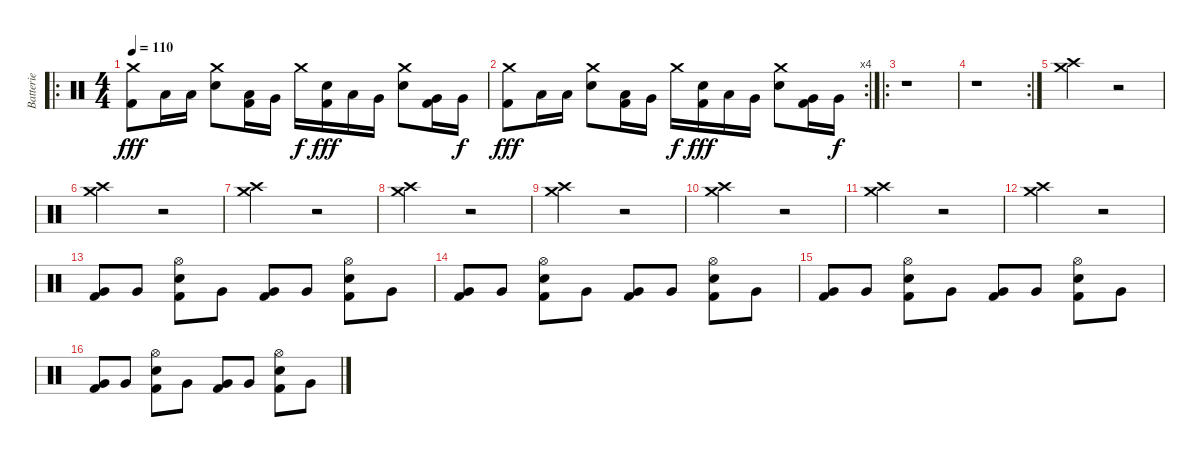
\track ("Batterie" "Batterie") {instrument percussion}
\staff {score}
\articulation defaults
\ro
\ts (4 4)
\tempo 110
\clef neutral
\ks c
("Crash medium (hit)" "Kick (hit) 2").8{dy fff} "Low Tom (hit)".16 "Low Tom (hit)".16 ("Crash medium (hit)" "Snare (hit) 2").8 ("Low Tom (hit)" "Kick (hit) 2").16 "Very Low Tom (hit)".16 "Crash medium (hit)".16{dy f} ("Snare (hit) 2" "Kick (hit) 2").16{dy fff} "Low Tom (hit)".16 "Very Low Tom (hit)".16 ("Crash medium (hit)" "Snare (hit) 2").8 ("Very Low Tom (hit)" "Kick (hit) 2").16 "Very Low Tom (hit)".16{dy f} |
\rc 4
("Crash medium (hit)" "Kick (hit) 2").8{dy fff} "Low Tom (hit)".16 "Low Tom (hit)".16 ("Crash medium (hit)" "Snare (hit) 2").8 ("Low Tom (hit)" "Kick (hit) 2").16 "Very Low Tom (hit)".16 "Crash medium (hit)".16{dy f} ("Snare (hit) 2" "Kick (hit) 2").16{dy fff} "Low Tom (hit)".16 "Very Low Tom (hit)".16 ("Crash medium (hit)" "Snare (hit) 2").8 ("Very Low Tom (hit)" "Kick (hit) 2").16 "Very Low Tom (hit)".16{dy f} |
\ro
r.1 |
\rc 2
r.1 |
("Crash high (hit)" "Crash medium (hit)").2 r.2 |
("Crash high (hit)" "Crash medium (hit)").2 r.2 |
("Crash high (hit)" "Crash medium (hit)").2 r.2 |
("Crash high (hit)" "Crash medium (hit)").2 r.2 |
("Crash high (hit)" "Crash medium (hit)").2 r.2 |
("Crash high (hit)" "Crash medium (hit)").2 r.2 |
("Crash high (hit)" "Crash medium (hit)").2 r.2 |
("Crash high (hit)" "Crash medium (hit)").2 r.2 |
("Very Low Tom (hit)" "Kick (hit) 2").8 "Very Low Tom (hit)".8 ("Hi-Hat (open)" "Snare (hit) 2" "Kick (hit) 2").8 "Very Low Tom (hit)".8 ("Very Low Tom (hit)" "Kick (hit) 2").8 "Very Low Tom (hit)".8 ("Hi-Hat (open)" "Snare (hit) 2" "Kick (hit) 2").8 "Very Low Tom (hit)".8 |
("Very Low Tom (hit)" "Kick (hit) 2").8 "Very Low Tom (hit)".8 ("Hi-Hat (open)" "Snare (hit) 2" "Kick (hit) 2").8 "Very Low Tom (hit)".8 ("Very Low Tom (hit)" "Kick (hit) 2").8 "Very Low Tom (hit)".8 ("Hi-Hat (open)" "Snare (hit) 2" "Kick (hit) 2").8 "Very Low Tom (hit)".8 |
("Very Low Tom (hit)" "Kick (hit) 2").8 "Very Low Tom (hit)".8 ("Hi-Hat (open)" "Snare (hit) 2" "Kick (hit) 2").8 "Very Low Tom (hit)".8 ("Very Low Tom (hit)" "Kick (hit) 2").8 "Very Low Tom (hit)".8 ("Hi-Hat (open)" "Snare (hit) 2" "Kick (hit) 2").8 "Very Low Tom (hit)".8 |
("Very Low Tom (hit)" "Kick (hit) 2").8 "Very Low Tom (hit)".8 ("Hi-Hat (open)" "Snare (hit) 2" "Kick (hit) 2").8 "Very Low Tom (hit)".8 ("Very Low Tom (hit)" "Kick (hit) 2").8 "Very Low Tom (hit)".8 ("Hi-Hat (open)" "Snare (hit) 2" "Kick (hit) 2").8 "Very Low Tom (hit)".8
